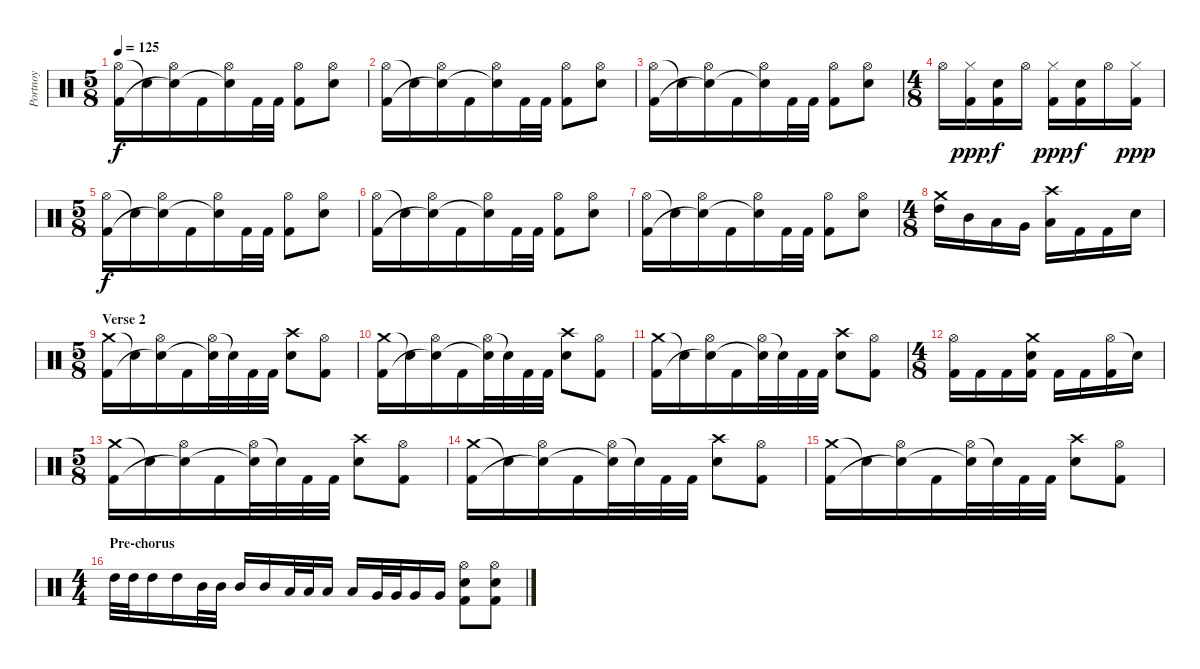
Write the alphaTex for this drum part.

\track ("Portnoy" "Portnoy") {instrument percussion}
\staff {score}
\articulation defaults
\ts (5 8)
\tempo 125
\clef neutral
\ks c
("Hi-Hat (open)" "Kick (hit) 2").16{dy f} "Snare (hit)"{t}.16 ("Hi-Hat (open)" "Snare (hit)"{t}).16 "Kick (hit) 2".16 ("Hi-Hat (open)" "Snare (hit)"{t}).16 "Kick (hit) 2".32 "Kick (hit) 2".32 ("Hi-Hat (open)" "Kick (hit) 2").8 ("Hi-Hat (open)" "Snare (hit) 2").8 |
("Hi-Hat (open)" "Kick (hit) 2").16 "Snare (hit)"{t}.16 ("Hi-Hat (open)" "Snare (hit)"{t}).16 "Kick (hit) 2".16 ("Hi-Hat (open)" "Snare (hit)"{t}).16 "Kick (hit) 2".32 "Kick (hit) 2".32 ("Hi-Hat (open)" "Kick (hit) 2").8 ("Hi-Hat (open)" "Snare (hit) 2").8 |
("Hi-Hat (open)" "Kick (hit) 2").16 "Snare (hit)"{t}.16 ("Hi-Hat (open)" "Snare (hit)"{t}).16 "Kick (hit) 2".16 ("Hi-Hat (open)" "Snare (hit)"{t}).16 "Kick (hit) 2".32 "Kick (hit) 2".32 ("Hi-Hat (open)" "Kick (hit) 2").8 ("Hi-Hat (open)" "Snare (hit) 2").8 |
\ts (4 8)
"Hi-Hat (open)".16 ("Hi-Hat (closed)" "Kick (hit) 2").16{dy ppp} ("Snare (hit) 2" "Kick (hit) 2").16{dy f} "Hi-Hat (open)".16 ("Hi-Hat (closed)" "Kick (hit) 2").16{dy ppp} ("Snare (hit) 2" "Kick (hit) 2").16{dy f} "Hi-Hat (open)".16 ("Hi-Hat (closed)" "Kick (hit) 2").16{dy ppp} |
\ts (5 8)
("Hi-Hat (open)" "Kick (hit) 2").16{dy f} "Snare (hit)"{t}.16 ("Hi-Hat (open)" "Snare (hit)"{t}).16 "Kick (hit) 2".16 ("Hi-Hat (open)" "Snare (hit)"{t}).16 "Kick (hit) 2".32 "Kick (hit) 2".32 ("Hi-Hat (open)" "Kick (hit) 2").8 ("Hi-Hat (open)" "Snare (hit) 2").8 |
("Hi-Hat (open)" "Kick (hit) 2").16 "Snare (hit)"{t}.16 ("Hi-Hat (open)" "Snare (hit)"{t}).16 "Kick (hit) 2".16 ("Hi-Hat (open)" "Snare (hit)"{t}).16 "Kick (hit) 2".32 "Kick (hit) 2".32 ("Hi-Hat (open)" "Kick (hit) 2").8 ("Hi-Hat (open)" "Snare (hit) 2").8 |
("Hi-Hat (open)" "Kick (hit) 2").16 "Snare (hit)"{t}.16 ("Hi-Hat (open)" "Snare (hit)"{t}).16 "Kick (hit) 2".16 ("Hi-Hat (open)" "Snare (hit)"{t}).16 "Kick (hit) 2".32 "Kick (hit) 2".32 ("Hi-Hat (open)" "Kick (hit) 2").8 ("Hi-Hat (open)" "Snare (hit) 2").8 |
\ts (4 8)
("High Tom (hit)" "Crash medium (hit)").16 "Mid Tom (hit)".16 "Low Tom (hit)".16 "Very Low Tom (hit)".16 ("Crash high (hit)" "Low Floor Tom (hit)").16 "Kick (hit) 2".16 "Kick (hit) 2".16 "Snare (hit) 2".16 |
\ts (5 8)
\section ("" "Verse 2")
("Crash medium (hit)" "Kick (hit) 2").16 "Snare (hit)"{t}.16 ("Hi-Hat (open)" "Snare (hit)"{t}).16 "Kick (hit) 2".16 ("Hi-Hat (open)" "Snare (hit)"{t}).32 "Snare (hit)"{t}.32 "Kick (hit) 2".32 "Kick (hit) 2".32 ("Crash high (hit)" "Snare (hit) 2").8 ("Hi-Hat (open)" "Kick (hit) 2").8 |
("Crash medium (hit)" "Kick (hit) 2").16 "Snare (hit)"{t}.16 ("Hi-Hat (open)" "Snare (hit)"{t}).16 "Kick (hit) 2".16 ("Hi-Hat (open)" "Snare (hit)"{t}).32 "Snare (hit)"{t}.32 "Kick (hit) 2".32 "Kick (hit) 2".32 ("Crash high (hit)" "Snare (hit) 2").8 ("Hi-Hat (open)" "Kick (hit) 2").8 |
("Crash medium (hit)" "Kick (hit) 2").16 "Snare (hit)"{t}.16 ("Hi-Hat (open)" "Snare (hit)"{t}).16 "Kick (hit) 2".16 ("Hi-Hat (open)" "Snare (hit)"{t}).32 "Snare (hit)"{t}.32 "Kick (hit) 2".32 "Kick (hit) 2".32 ("Crash high (hit)" "Snare (hit) 2").8 ("Hi-Hat (open)" "Kick (hit) 2").8 |
\ts (4 8)
("Hi-Hat (open)" "Kick (hit) 2").16 "Kick (hit) 2".16 "Kick (hit) 2".16 ("Crash medium (hit)" "Snare (hit) 2" "Kick (hit) 2").16 "Kick (hit) 2".16 "Kick (hit) 2".16 ("Hi-Hat (open)" "Kick (hit) 2").16 "Snare (hit)"{t}.16 |
\ts (5 8)
("Crash medium (hit)" "Kick (hit) 2").16 "Snare (hit)"{t}.16 ("Hi-Hat (open)" "Snare (hit)"{t}).16 "Kick (hit) 2".16 ("Hi-Hat (open)" "Snare (hit)"{t}).32 "Snare (hit)"{t}.32 "Kick (hit) 2".32 "Kick (hit) 2".32 ("Crash high (hit)" "Snare (hit) 2").8 ("Hi-Hat (open)" "Kick (hit) 2").8 |
("Crash medium (hit)" "Kick (hit) 2").16 "Snare (hit)"{t}.16 ("Hi-Hat (open)" "Snare (hit)"{t}).16 "Kick (hit) 2".16 ("Hi-Hat (open)" "Snare (hit)"{t}).32 "Snare (hit)"{t}.32 "Kick (hit) 2".32 "Kick (hit) 2".32 ("Crash high (hit)" "Snare (hit) 2").8 ("Hi-Hat (open)" "Kick (hit) 2").8 |
("Crash medium (hit)" "Kick (hit) 2").16 "Snare (hit)"{t}.16 ("Hi-Hat (open)" "Snare (hit)"{t}).16 "Kick (hit) 2".16 ("Hi-Hat (open)" "Snare (hit)"{t}).32 "Snare (hit)"{t}.32 "Kick (hit) 2".32 "Kick (hit) 2".32 ("Crash high (hit)" "Snare (hit) 2").8 ("Hi-Hat (open)" "Kick (hit) 2").8 |
\ts (4 4)
\section ("" "Pre-chorus")
"High Tom (hit)".32 "High Tom (hit)".32 "High Tom (hit)".16 "High Tom (hit)".16 "Mid Tom (hit)".32 "Mid Tom (hit)".32 "Mid Tom (hit)".16 "Mid Tom (hit)".16 "Low Tom (hit)".32 "Low Tom (hit)".32 "Low Tom (hit)".16 "Low Tom (hit)".16 "Very Low Tom (hit)".32 "Very Low Tom (hit)".32 "Very Low Tom (hit)".16 "Very Low Tom (hit)".16 ("Hi-Hat (open)" "Snare (hit) 2" "Kick (hit) 2").8 ("Hi-Hat (open)" "Snare (hit) 2" "Kick (hit) 2").8
